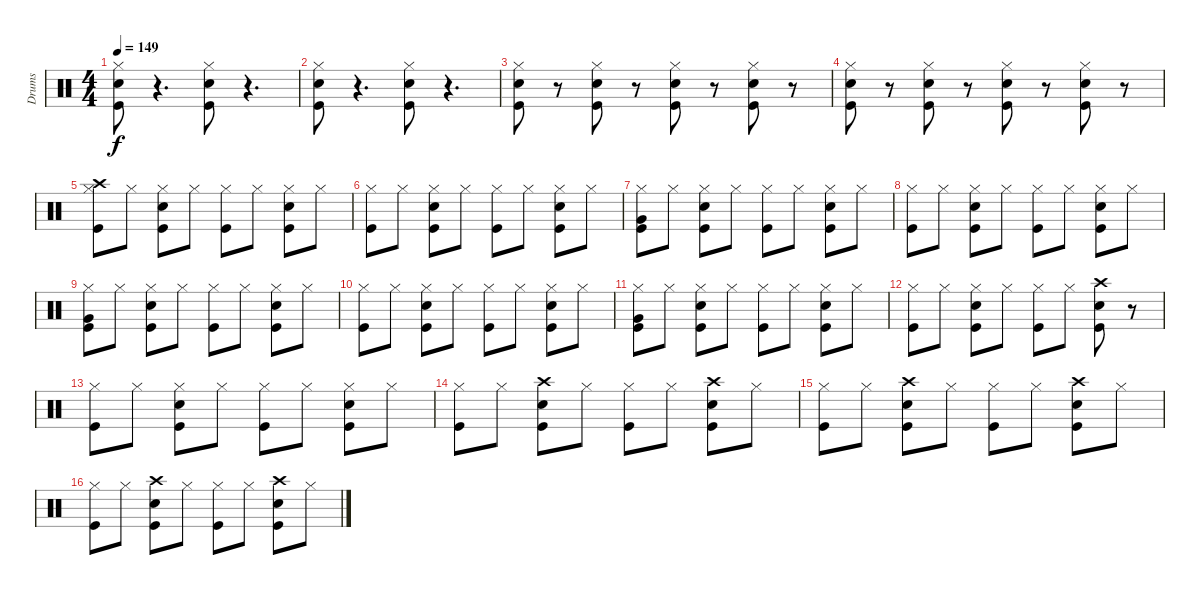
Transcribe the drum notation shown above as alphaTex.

\track ("Drums" "Drums") {instrument percussion}
\staff {score}
\articulation defaults
\ts (4 4)
\tempo 149
\clef neutral
\ks c
("Hi-Hat (closed)" "Kick (hit)" "Snare (hit) 2").8{dy f} r.4{d} ("Hi-Hat (closed)" "Kick (hit)" "Snare (hit) 2").8 r.4{d} |
("Hi-Hat (closed)" "Kick (hit)" "Snare (hit) 2").8 r.4{d} ("Hi-Hat (closed)" "Kick (hit)" "Snare (hit) 2").8 r.4{d} |
("Hi-Hat (closed)" "Kick (hit)" "Snare (hit) 2").8 r.8 ("Hi-Hat (closed)" "Kick (hit)" "Snare (hit) 2").8 r.8 ("Hi-Hat (closed)" "Kick (hit)" "Snare (hit) 2").8 r.8 ("Hi-Hat (closed)" "Kick (hit)" "Snare (hit) 2").8 r.8 |
("Hi-Hat (closed)" "Kick (hit)" "Snare (hit) 2").8 r.8 ("Hi-Hat (closed)" "Kick (hit)" "Snare (hit) 2").8 r.8 ("Hi-Hat (closed)" "Kick (hit)" "Snare (hit) 2").8 r.8 ("Hi-Hat (closed)" "Kick (hit)" "Snare (hit) 2").8 r.8 |
("Hi-Hat (closed)" "Crash high (hit)" "Kick (hit)").8 "Hi-Hat (closed)".8 ("Hi-Hat (closed)" "Snare (hit) 2" "Kick (hit)").8 "Hi-Hat (closed)".8 ("Hi-Hat (closed)" "Kick (hit)").8 "Hi-Hat (closed)".8 ("Hi-Hat (closed)" "Snare (hit) 2" "Kick (hit)").8 "Hi-Hat (closed)".8 |
("Hi-Hat (closed)" "Kick (hit)").8 "Hi-Hat (closed)".8 ("Hi-Hat (closed)" "Snare (hit) 2" "Kick (hit)").8 "Hi-Hat (closed)".8 ("Hi-Hat (closed)" "Kick (hit)").8 "Hi-Hat (closed)".8 ("Hi-Hat (closed)" "Snare (hit) 2" "Kick (hit)").8 "Hi-Hat (closed)".8 |
("Hi-Hat (closed)" "Very Low Tom (hit)" "Kick (hit)").8 "Hi-Hat (closed)".8 ("Hi-Hat (closed)" "Snare (hit) 2" "Kick (hit)").8 "Hi-Hat (closed)".8 ("Hi-Hat (closed)" "Kick (hit)").8 "Hi-Hat (closed)".8 ("Hi-Hat (closed)" "Kick (hit)" "Snare (hit) 2").8 "Hi-Hat (closed)".8 |
("Hi-Hat (closed)" "Kick (hit)").8 "Hi-Hat (closed)".8 ("Hi-Hat (closed)" "Snare (hit) 2" "Kick (hit)").8 "Hi-Hat (closed)".8 ("Hi-Hat (closed)" "Kick (hit)").8 "Hi-Hat (closed)".8 ("Hi-Hat (closed)" "Snare (hit) 2" "Kick (hit)").8 "Hi-Hat (closed)".8 |
("Hi-Hat (closed)" "Very Low Tom (hit)" "Kick (hit)").8 "Hi-Hat (closed)".8 ("Hi-Hat (closed)" "Snare (hit) 2" "Kick (hit)").8 "Hi-Hat (closed)".8 ("Hi-Hat (closed)" "Kick (hit)").8 "Hi-Hat (closed)".8 ("Hi-Hat (closed)" "Kick (hit)" "Snare (hit) 2").8 "Hi-Hat (closed)".8 |
("Hi-Hat (closed)" "Kick (hit)").8 "Hi-Hat (closed)".8 ("Hi-Hat (closed)" "Snare (hit) 2" "Kick (hit)").8 "Hi-Hat (closed)".8 ("Hi-Hat (closed)" "Kick (hit)").8 "Hi-Hat (closed)".8 ("Hi-Hat (closed)" "Snare (hit) 2" "Kick (hit)").8 "Hi-Hat (closed)".8 |
("Hi-Hat (closed)" "Very Low Tom (hit)" "Kick (hit)").8 "Hi-Hat (closed)".8 ("Hi-Hat (closed)" "Snare (hit) 2" "Kick (hit)").8 "Hi-Hat (closed)".8 ("Hi-Hat (closed)" "Kick (hit)").8 "Hi-Hat (closed)".8 ("Hi-Hat (closed)" "Kick (hit)" "Snare (hit) 2").8 "Hi-Hat (closed)".8 |
("Hi-Hat (closed)" "Kick (hit)").8 "Hi-Hat (closed)".8 ("Hi-Hat (closed)" "Kick (hit)" "Snare (hit) 2").8 "Hi-Hat (closed)".8 ("Hi-Hat (closed)" "Kick (hit)").8 "Hi-Hat (closed)".8 ("Crash high (hit)" "Kick (hit)" "Snare (hit) 2").8 r.8 |
("Hi-Hat (closed)" "Kick (hit)").8 "Hi-Hat (closed)".8 ("Hi-Hat (closed)" "Snare (hit) 2" "Kick (hit)").8 "Hi-Hat (closed)".8 ("Hi-Hat (closed)" "Kick (hit)").8 "Hi-Hat (closed)".8 ("Hi-Hat (closed)" "Snare (hit) 2" "Kick (hit)").8 "Hi-Hat (closed)".8 |
("Hi-Hat (closed)" "Kick (hit)").8 "Hi-Hat (closed)".8 ("Crash high (hit)" "Snare (hit) 2" "Kick (hit)").8 "Hi-Hat (closed)".8 ("Hi-Hat (closed)" "Kick (hit)").8 "Hi-Hat (closed)".8 ("Crash high (hit)" "Kick (hit)" "Snare (hit) 2").8 "Hi-Hat (closed)".8 |
("Hi-Hat (closed)" "Kick (hit)").8 "Hi-Hat (closed)".8 ("Crash high (hit)" "Snare (hit) 2" "Kick (hit)").8 "Hi-Hat (closed)".8 ("Hi-Hat (closed)" "Kick (hit)").8 "Hi-Hat (closed)".8 ("Crash high (hit)" "Kick (hit)" "Snare (hit) 2").8 "Hi-Hat (closed)".8 |
("Hi-Hat (closed)" "Kick (hit)").8 "Hi-Hat (closed)".8 ("Crash high (hit)" "Snare (hit) 2" "Kick (hit)").8 "Hi-Hat (closed)".8 ("Hi-Hat (closed)" "Kick (hit)").8 "Hi-Hat (closed)".8 ("Crash high (hit)" "Kick (hit)" "Snare (hit) 2").8 "Hi-Hat (closed)".8
